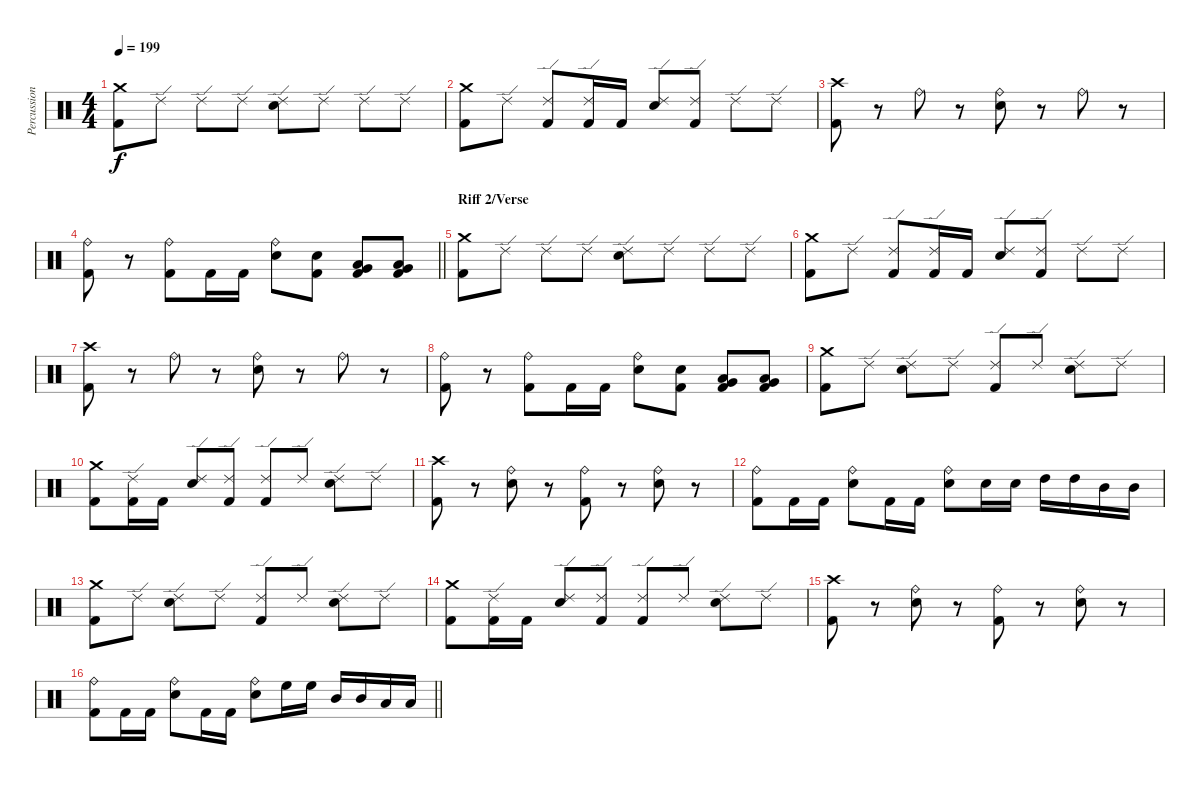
\track ("Percussion" "Percussion") {instrument percussion}
\staff {score}
\articulation defaults
\ts (4 4)
\tempo 199
\clef neutral
\ks c
("Crash medium (hit)" "Kick (hit) 2").8{dy f} "Ride (edge) 2".8 "Ride (edge) 2".8 "Ride (edge) 2".8 ("Ride (edge) 2" "Electric Snare (hit)").8 "Ride (edge) 2".8 "Ride (edge) 2".8 "Ride (edge) 2".8 |
("Crash medium (hit)" "Kick (hit) 2").8 "Ride (edge) 2".8 ("Ride (edge) 2" "Kick (hit) 2").8 ("Ride (edge) 2" "Kick (hit) 2").16 "Kick (hit) 2".16 ("Ride (edge) 2" "Electric Snare (hit)").8 ("Ride (edge) 2" "Kick (hit) 2").8 "Ride (edge) 2".8 "Ride (edge) 2".8 |
("Crash high (hit)" "Kick (hit) 2").8 r.8 "Ride (bell)".8 r.8 ("Ride (bell)" "Electric Snare (hit)").8 r.8 "Ride (bell)".8 r.8 |
\barLineRight lightlight
("Ride (bell)" "Kick (hit) 2").8 r.8 ("Ride (bell)" "Kick (hit) 2").8 "Kick (hit) 2".16 "Kick (hit) 2".16 ("Ride (bell)" "Electric Snare (hit)").8 ("Electric Snare (hit)" "Kick (hit) 2").8 ("Low Tom (hit)" "Very Low Tom (hit)" "Kick (hit) 2").8 ("Very Low Tom (hit)" "Low Floor Tom (hit)" "Kick (hit) 2").8 |
\section ("" "Riff 2/Verse")
("Crash medium (hit)" "Kick (hit) 2").8 "Ride (edge) 2".8 "Ride (edge) 2".8 "Ride (edge) 2".8 ("Ride (edge) 2" "Electric Snare (hit)").8 "Ride (edge) 2".8 "Ride (edge) 2".8 "Ride (edge) 2".8 |
("Crash medium (hit)" "Kick (hit) 2").8 "Ride (edge) 2".8 ("Ride (edge) 2" "Kick (hit) 2").8 ("Ride (edge) 2" "Kick (hit) 2").16 "Kick (hit) 2".16 ("Ride (edge) 2" "Electric Snare (hit)").8 ("Ride (edge) 2" "Kick (hit) 2").8 "Ride (edge) 2".8 "Ride (edge) 2".8 |
("Crash high (hit)" "Kick (hit) 2").8 r.8 "Ride (bell)".8 r.8 ("Ride (bell)" "Electric Snare (hit)").8 r.8 "Ride (bell)".8 r.8 |
("Ride (bell)" "Kick (hit) 2").8 r.8 ("Ride (bell)" "Kick (hit) 2").8 "Kick (hit) 2".16 "Kick (hit) 2".16 ("Ride (bell)" "Electric Snare (hit)").8 ("Electric Snare (hit)" "Kick (hit) 2").8 ("Low Tom (hit)" "Very Low Tom (hit)" "Kick (hit) 2").8 ("Very Low Tom (hit)" "Low Floor Tom (hit)" "Kick (hit) 2").8 |
("Crash medium (hit)" "Kick (hit) 2").8 "Ride (edge) 2".8 ("Ride (edge) 2" "Electric Snare (hit)").8 "Ride (edge) 2".8 ("Ride (edge) 2" "Kick (hit) 2").8 "Ride (edge) 2".8 ("Ride (edge) 2" "Electric Snare (hit)").8 "Ride (edge) 2".8 |
("Crash medium (hit)" "Kick (hit) 2").8 ("Ride (edge) 2" "Kick (hit) 2").16 "Kick (hit) 2".16 ("Ride (edge) 2" "Electric Snare (hit)").8 ("Ride (edge) 2" "Kick (hit) 2").8 ("Ride (edge) 2" "Kick (hit) 2").8 "Ride (edge) 2".8 ("Ride (edge) 2" "Electric Snare (hit)").8 "Ride (edge) 2".8 |
("Crash high (hit)" "Kick (hit) 2").8 r.8 ("Ride (bell)" "Electric Snare (hit)").8 r.8 ("Ride (bell)" "Kick (hit) 2").8 r.8 ("Ride (bell)" "Electric Snare (hit)").8 r.8 |
("Ride (bell)" "Kick (hit) 2").8 "Kick (hit) 2".16 "Kick (hit) 2".16 ("Ride (bell)" "Electric Snare (hit)").8 "Kick (hit) 2".16 "Kick (hit) 2".16 ("Ride (bell)" "Electric Snare (hit)").8 "Electric Snare (hit)".16 "Electric Snare (hit)".16 "High Tom (hit)".16 "High Tom (hit)".16 "Mid Tom (hit)".16 "Mid Tom (hit)".16 |
("Crash medium (hit)" "Kick (hit) 2").8 "Ride (edge) 2".8 ("Ride (edge) 2" "Electric Snare (hit)").8 "Ride (edge) 2".8 ("Ride (edge) 2" "Kick (hit) 2").8 "Ride (edge) 2".8 ("Ride (edge) 2" "Electric Snare (hit)").8 "Ride (edge) 2".8 |
("Crash medium (hit)" "Kick (hit) 2").8 ("Ride (edge) 2" "Kick (hit) 2").16 "Kick (hit) 2".16 ("Ride (edge) 2" "Electric Snare (hit)").8 ("Ride (edge) 2" "Kick (hit) 2").8 ("Ride (edge) 2" "Kick (hit) 2").8 "Ride (edge) 2".8 ("Ride (edge) 2" "Electric Snare (hit)").8 "Ride (edge) 2".8 |
("Crash high (hit)" "Kick (hit) 2").8 r.8 ("Ride (bell)" "Electric Snare (hit)").8 r.8 ("Ride (bell)" "Kick (hit) 2").8 r.8 ("Ride (bell)" "Electric Snare (hit)").8 r.8 |
\barLineRight lightlight
("Ride (bell)" "Kick (hit) 2").8 "Kick (hit) 2".16 "Kick (hit) 2".16 ("Ride (bell)" "Electric Snare (hit)").8 "Kick (hit) 2".16 "Kick (hit) 2".16 ("Ride (bell)" "Electric Snare (hit)").8 "High Floor Tom (hit)".16 "High Floor Tom (hit)".16 "Mid Tom (hit)".16 "Mid Tom (hit)".16 "Low Tom (hit)".16 "Low Tom (hit)".16
